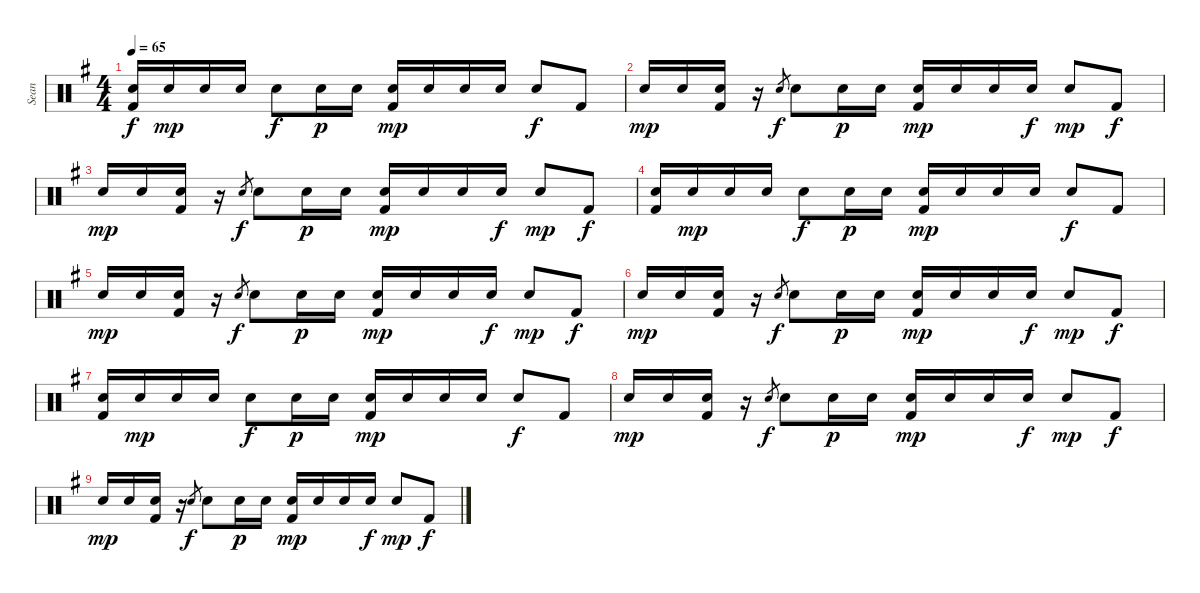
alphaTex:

\track ("Sean" "Sean") {instrument percussion}
\staff {score}
\articulation defaults
\ts (4 4)
\tempo 65
\clef neutral
\ks eminor
("Electric Snare (hit)" "Kick (hit) 2").16{dy f} "Electric Snare (hit)".16{dy mp} "Electric Snare (hit)".16 "Electric Snare (hit)".16 "Electric Snare (hit)".8{dy f} "Electric Snare (hit)".16{dy p} "Electric Snare (hit)".16 ("Electric Snare (hit)" "Kick (hit) 2").16{dy mp} "Electric Snare (hit)".16 "Electric Snare (hit)".16 "Electric Snare (hit)".16 "Electric Snare (hit)".8{dy f} "Kick (hit) 2".8 |
"Electric Snare (hit)".16{dy mp} "Electric Snare (hit)".16 ("Electric Snare (hit)" "Kick (hit) 2").16 r.16 "Electric Snare (hit)".8{gr dy f} "Electric Snare (hit)".8 "Electric Snare (hit)".16{dy p} "Electric Snare (hit)".16 ("Electric Snare (hit)" "Kick (hit) 2").16{dy mp} "Electric Snare (hit)".16 "Electric Snare (hit)".16 "Electric Snare (hit)".16{dy f} "Electric Snare (hit)".8{dy mp} "Kick (hit) 2".8{dy f} |
"Electric Snare (hit)".16{dy mp} "Electric Snare (hit)".16 ("Electric Snare (hit)" "Kick (hit) 2").16 r.16 "Electric Snare (hit)".8{gr dy f} "Electric Snare (hit)".8 "Electric Snare (hit)".16{dy p} "Electric Snare (hit)".16 ("Electric Snare (hit)" "Kick (hit) 2").16{dy mp} "Electric Snare (hit)".16 "Electric Snare (hit)".16 "Electric Snare (hit)".16{dy f} "Electric Snare (hit)".8{dy mp} "Kick (hit) 2".8{dy f} |
("Electric Snare (hit)" "Kick (hit) 2").16 "Electric Snare (hit)".16{dy mp} "Electric Snare (hit)".16 "Electric Snare (hit)".16 "Electric Snare (hit)".8{dy f} "Electric Snare (hit)".16{dy p} "Electric Snare (hit)".16 ("Electric Snare (hit)" "Kick (hit) 2").16{dy mp} "Electric Snare (hit)".16 "Electric Snare (hit)".16 "Electric Snare (hit)".16 "Electric Snare (hit)".8{dy f} "Kick (hit) 2".8 |
"Electric Snare (hit)".16{dy mp} "Electric Snare (hit)".16 ("Electric Snare (hit)" "Kick (hit) 2").16 r.16 "Electric Snare (hit)".8{gr dy f} "Electric Snare (hit)".8 "Electric Snare (hit)".16{dy p} "Electric Snare (hit)".16 ("Electric Snare (hit)" "Kick (hit) 2").16{dy mp} "Electric Snare (hit)".16 "Electric Snare (hit)".16 "Electric Snare (hit)".16{dy f} "Electric Snare (hit)".8{dy mp} "Kick (hit) 2".8{dy f} |
"Electric Snare (hit)".16{dy mp volume 0} "Electric Snare (hit)".16 ("Electric Snare (hit)" "Kick (hit) 2").16 r.16 "Electric Snare (hit)".8{gr dy f} "Electric Snare (hit)".8 "Electric Snare (hit)".16{dy p} "Electric Snare (hit)".16 ("Electric Snare (hit)" "Kick (hit) 2").16{dy mp} "Electric Snare (hit)".16 "Electric Snare (hit)".16 "Electric Snare (hit)".16{dy f} "Electric Snare (hit)".8{dy mp} "Kick (hit) 2".8{dy f} |
("Electric Snare (hit)" "Kick (hit) 2").16 "Electric Snare (hit)".16{dy mp} "Electric Snare (hit)".16 "Electric Snare (hit)".16 "Electric Snare (hit)".8{dy f} "Electric Snare (hit)".16{dy p} "Electric Snare (hit)".16 ("Electric Snare (hit)" "Kick (hit) 2").16{dy mp} "Electric Snare (hit)".16 "Electric Snare (hit)".16 "Electric Snare (hit)".16 "Electric Snare (hit)".8{dy f} "Kick (hit) 2".8 |
"Electric Snare (hit)".16{dy mp} "Electric Snare (hit)".16 ("Electric Snare (hit)" "Kick (hit) 2").16 r.16 "Electric Snare (hit)".8{gr dy f} "Electric Snare (hit)".8 "Electric Snare (hit)".16{dy p} "Electric Snare (hit)".16 ("Electric Snare (hit)" "Kick (hit) 2").16{dy mp} "Electric Snare (hit)".16 "Electric Snare (hit)".16 "Electric Snare (hit)".16{dy f} "Electric Snare (hit)".8{dy mp} "Kick (hit) 2".8{dy f} |
"Electric Snare (hit)".16{dy mp} "Electric Snare (hit)".16 ("Electric Snare (hit)" "Kick (hit) 2").16 r.16 "Electric Snare (hit)".8{gr dy f} "Electric Snare (hit)".8 "Electric Snare (hit)".16{dy p} "Electric Snare (hit)".16 ("Electric Snare (hit)" "Kick (hit) 2").16{dy mp} "Electric Snare (hit)".16 "Electric Snare (hit)".16 "Electric Snare (hit)".16{dy f} "Electric Snare (hit)".8{dy mp} "Kick (hit) 2".8{dy f}
